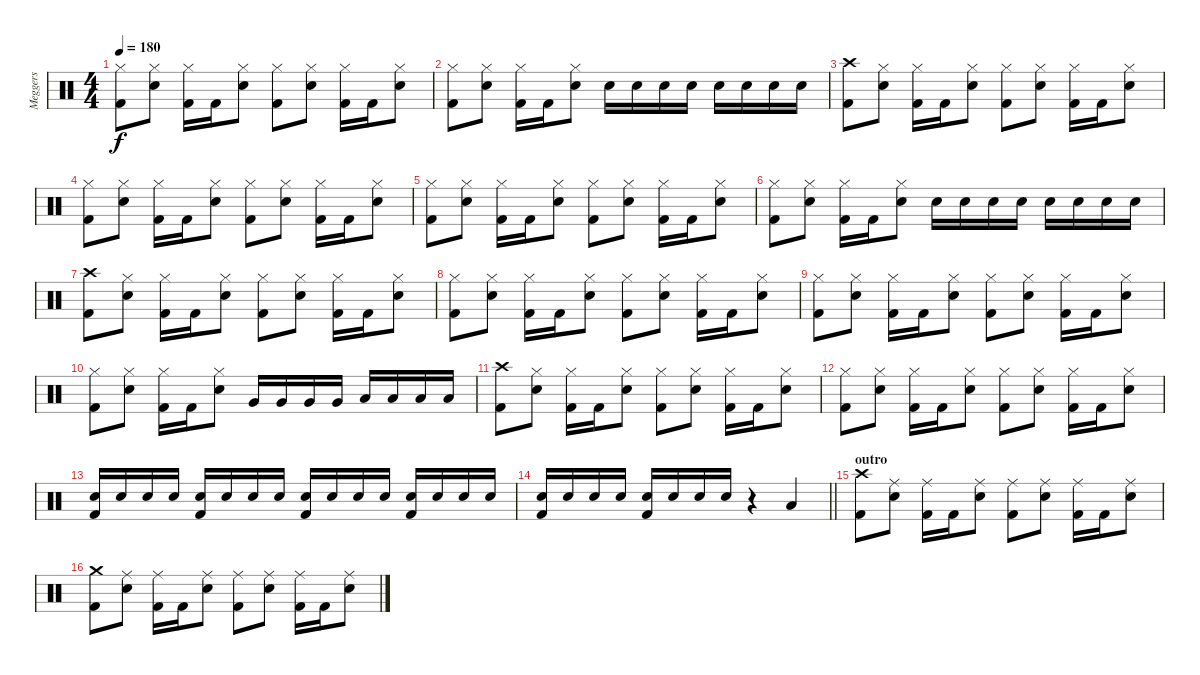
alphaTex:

\track ("Meggers" "Meggers") {instrument percussion}
\staff {score}
\articulation defaults
\ts (4 4)
\tempo 180
\clef neutral
\ks c
("Hi-Hat (closed)" "Kick (hit) 2").8{dy f} ("Hi-Hat (closed)" "Snare (hit) 2").8 ("Hi-Hat (closed)" "Kick (hit) 2").16 "Kick (hit) 2".16 ("Hi-Hat (closed)" "Snare (hit) 2").8 ("Hi-Hat (closed)" "Kick (hit) 2").8 ("Hi-Hat (closed)" "Snare (hit) 2").8 ("Hi-Hat (closed)" "Kick (hit) 2").16 "Kick (hit) 2".16 ("Hi-Hat (closed)" "Snare (hit) 2").8 |
("Hi-Hat (closed)" "Kick (hit) 2").8 ("Hi-Hat (closed)" "Snare (hit) 2").8 ("Hi-Hat (closed)" "Kick (hit) 2").16 "Kick (hit) 2".16 ("Hi-Hat (closed)" "Snare (hit) 2").8 "Snare (hit) 2".16 "Snare (hit) 2".16 "Snare (hit) 2".16 "Snare (hit) 2".16 "Snare (hit) 2".16 "Snare (hit) 2".16 "Snare (hit) 2".16 "Snare (hit) 2".16 |
("Crash high (hit)" "Kick (hit) 2").8 ("Hi-Hat (closed)" "Snare (hit) 2").8 ("Hi-Hat (closed)" "Kick (hit) 2").16 "Kick (hit) 2".16 ("Hi-Hat (closed)" "Snare (hit) 2").8 ("Hi-Hat (closed)" "Kick (hit) 2").8 ("Hi-Hat (closed)" "Snare (hit) 2").8 ("Hi-Hat (closed)" "Kick (hit) 2").16 "Kick (hit) 2".16 ("Hi-Hat (closed)" "Snare (hit) 2").8 |
("Hi-Hat (closed)" "Kick (hit) 2").8 ("Hi-Hat (closed)" "Snare (hit) 2").8 ("Hi-Hat (closed)" "Kick (hit) 2").16 "Kick (hit) 2".16 ("Hi-Hat (closed)" "Snare (hit) 2").8 ("Hi-Hat (closed)" "Kick (hit) 2").8 ("Hi-Hat (closed)" "Snare (hit) 2").8 ("Hi-Hat (closed)" "Kick (hit) 2").16 "Kick (hit) 2".16 ("Hi-Hat (closed)" "Snare (hit) 2").8 |
("Hi-Hat (closed)" "Kick (hit) 2").8 ("Hi-Hat (closed)" "Snare (hit) 2").8 ("Hi-Hat (closed)" "Kick (hit) 2").16 "Kick (hit) 2".16 ("Hi-Hat (closed)" "Snare (hit) 2").8 ("Hi-Hat (closed)" "Kick (hit) 2").8 ("Hi-Hat (closed)" "Snare (hit) 2").8 ("Hi-Hat (closed)" "Kick (hit) 2").16 "Kick (hit) 2".16 ("Hi-Hat (closed)" "Snare (hit) 2").8 |
("Hi-Hat (closed)" "Kick (hit) 2").8 ("Hi-Hat (closed)" "Snare (hit) 2").8 ("Hi-Hat (closed)" "Kick (hit) 2").16 "Kick (hit) 2".16 ("Hi-Hat (closed)" "Snare (hit) 2").8 "Snare (hit) 2".16 "Snare (hit) 2".16 "Snare (hit) 2".16 "Snare (hit) 2".16 "Snare (hit) 2".16 "Snare (hit) 2".16 "Snare (hit) 2".16 "Snare (hit) 2".16 |
("Crash high (hit)" "Kick (hit) 2").8 ("Hi-Hat (closed)" "Snare (hit) 2").8 ("Hi-Hat (closed)" "Kick (hit) 2").16 "Kick (hit) 2".16 ("Hi-Hat (closed)" "Snare (hit) 2").8 ("Hi-Hat (closed)" "Kick (hit) 2").8 ("Hi-Hat (closed)" "Snare (hit) 2").8 ("Hi-Hat (closed)" "Kick (hit) 2").16 "Kick (hit) 2".16 ("Hi-Hat (closed)" "Snare (hit) 2").8 |
("Hi-Hat (closed)" "Kick (hit) 2").8 ("Hi-Hat (closed)" "Snare (hit) 2").8 ("Hi-Hat (closed)" "Kick (hit) 2").16 "Kick (hit) 2".16 ("Hi-Hat (closed)" "Snare (hit) 2").8 ("Hi-Hat (closed)" "Kick (hit) 2").8 ("Hi-Hat (closed)" "Snare (hit) 2").8 ("Hi-Hat (closed)" "Kick (hit) 2").16 "Kick (hit) 2".16 ("Hi-Hat (closed)" "Snare (hit) 2").8 |
("Hi-Hat (closed)" "Kick (hit) 2").8 ("Hi-Hat (closed)" "Snare (hit) 2").8 ("Hi-Hat (closed)" "Kick (hit) 2").16 "Kick (hit) 2".16 ("Hi-Hat (closed)" "Snare (hit) 2").8 ("Hi-Hat (closed)" "Kick (hit) 2").8 ("Hi-Hat (closed)" "Snare (hit) 2").8 ("Hi-Hat (closed)" "Kick (hit) 2").16 "Kick (hit) 2".16 ("Hi-Hat (closed)" "Snare (hit) 2").8 |
("Hi-Hat (closed)" "Kick (hit) 2").8 ("Hi-Hat (closed)" "Snare (hit) 2").8 ("Hi-Hat (closed)" "Kick (hit) 2").16 "Kick (hit) 2".16 ("Hi-Hat (closed)" "Snare (hit) 2").8 "Very Low Tom (hit)".16 "Very Low Tom (hit)".16 "Very Low Tom (hit)".16 "Very Low Tom (hit)".16 "Low Floor Tom (hit)".16 "Low Floor Tom (hit)".16 "Low Floor Tom (hit)".16 "Low Floor Tom (hit)".16 |
("Crash high (hit)" "Kick (hit) 2").8 ("Hi-Hat (closed)" "Snare (hit) 2").8 ("Hi-Hat (closed)" "Kick (hit) 2").16 "Kick (hit) 2".16 ("Hi-Hat (closed)" "Snare (hit) 2").8 ("Hi-Hat (closed)" "Kick (hit) 2").8 ("Hi-Hat (closed)" "Snare (hit) 2").8 ("Hi-Hat (closed)" "Kick (hit) 2").16 "Kick (hit) 2".16 ("Hi-Hat (closed)" "Snare (hit) 2").8 |
("Hi-Hat (closed)" "Kick (hit) 2").8 ("Hi-Hat (closed)" "Snare (hit) 2").8 ("Hi-Hat (closed)" "Kick (hit) 2").16 "Kick (hit) 2".16 ("Hi-Hat (closed)" "Snare (hit) 2").8 ("Hi-Hat (closed)" "Kick (hit) 2").8 ("Hi-Hat (closed)" "Snare (hit) 2").8 ("Hi-Hat (closed)" "Kick (hit) 2").16 "Kick (hit) 2".16 ("Hi-Hat (closed)" "Snare (hit) 2").8 |
("Snare (hit) 2" "Kick (hit) 2").16 "Snare (hit) 2".16 "Snare (hit) 2".16 "Snare (hit) 2".16 ("Snare (hit) 2" "Kick (hit) 2").16 "Snare (hit) 2".16 "Snare (hit) 2".16 "Snare (hit) 2".16 ("Snare (hit) 2" "Kick (hit) 2").16 "Snare (hit) 2".16 "Snare (hit) 2".16 "Snare (hit) 2".16 ("Snare (hit) 2" "Kick (hit) 2").16 "Snare (hit) 2".16 "Snare (hit) 2".16 "Snare (hit) 2".16 |
\barLineRight lightlight
("Snare (hit) 2" "Kick (hit) 2").16 "Snare (hit) 2".16 "Snare (hit) 2".16 "Snare (hit) 2".16 ("Snare (hit) 2" "Kick (hit) 2").16 "Snare (hit) 2".16 "Snare (hit) 2".16 "Snare (hit) 2".16 r.4 "Low Floor Tom (hit)".4 |
\section ("" "outro")
("Crash high (hit)" "Kick (hit) 2").8 ("Ride (middle)" "Snare (hit) 2").8 ("Ride (middle)" "Kick (hit) 2").16 "Kick (hit) 2".16 ("Ride (middle)" "Snare (hit) 2").8 ("Ride (middle)" "Kick (hit) 2").8 ("Ride (middle)" "Snare (hit) 2").8 ("Ride (middle)" "Kick (hit) 2").16 "Kick (hit) 2".16 ("Ride (middle)" "Snare (hit) 2").8 |
("Crash medium (hit)" "Kick (hit) 2").8 ("Ride (middle)" "Snare (hit) 2").8 ("Ride (middle)" "Kick (hit) 2").16 "Kick (hit) 2".16 ("Ride (middle)" "Snare (hit) 2").8 ("Ride (middle)" "Kick (hit) 2").8 ("Ride (middle)" "Snare (hit) 2").8 ("Ride (middle)" "Kick (hit) 2").16 "Kick (hit) 2".16 ("Ride (middle)" "Snare (hit) 2").8
